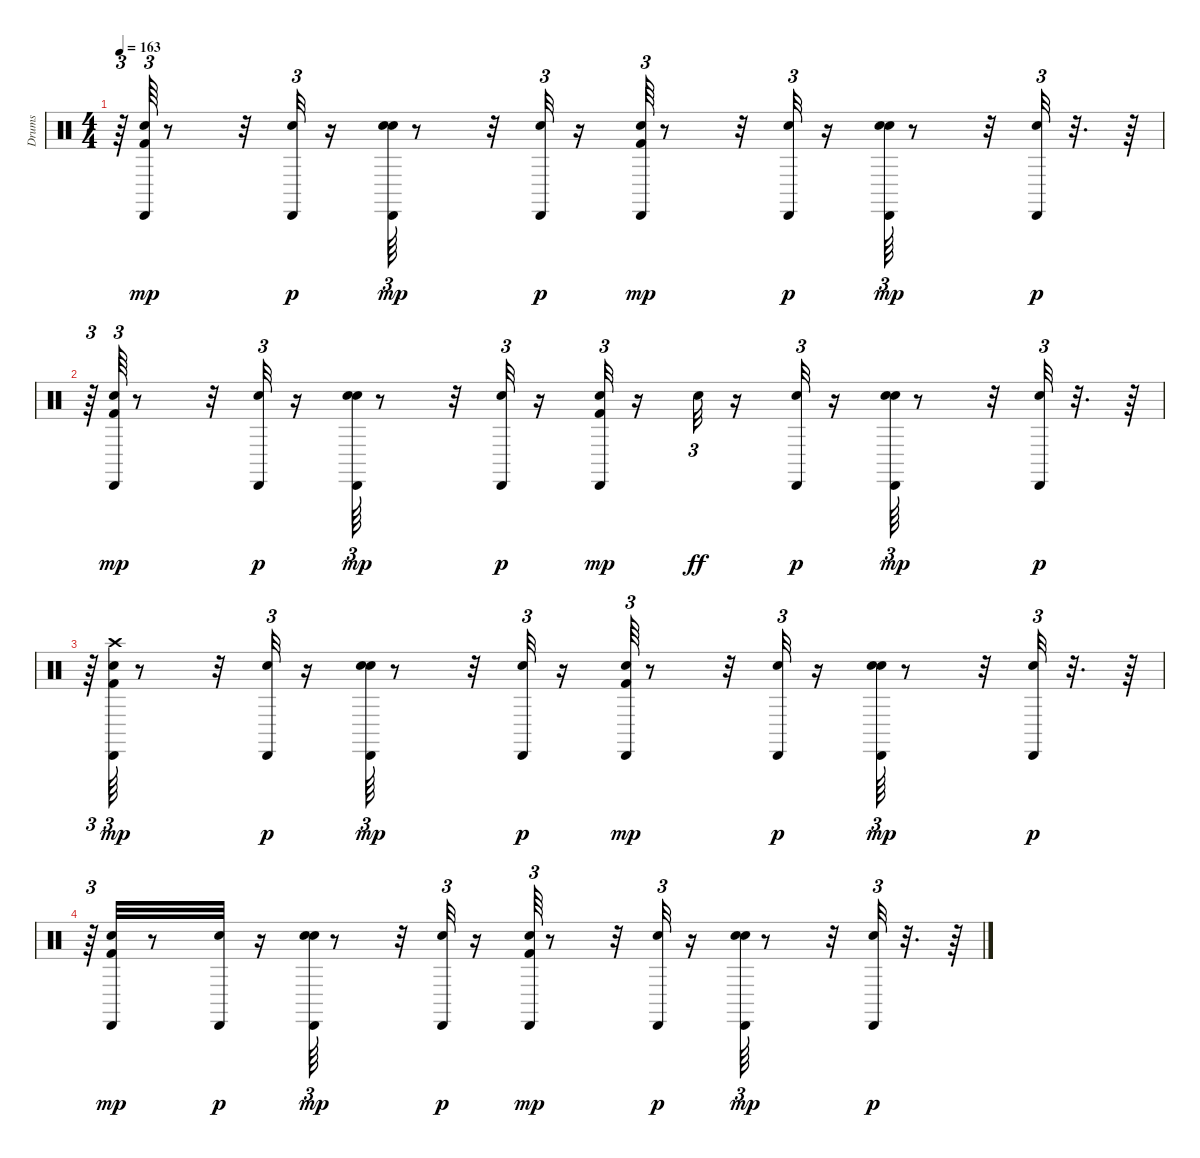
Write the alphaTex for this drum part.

\track ("Drums               " "Drums     ") {instrument percussion}
\staff {score}
\articulation defaults
\ts (4 4)
\tempo 163
\clef neutral
\ks c
r.64{tu (3 2) dy p} ("Kick (hit) 2" "Snare (hit) 2" "Cabasa (hit)").64{tu (3 2) dy mp} r.8 r.32 ("Snare (hit) 2" "Cabasa (hit)").32{tu (3 2) dy p} r.16 ("Snare (hit) 2" "Hand Clap (hit)" "Cabasa (hit)").64{tu (3 2) dy mp} r.8 r.32 ("Snare (hit) 2" "Cabasa (hit)").32{tu (3 2) dy p} r.16 ("Kick (hit) 2" "Snare (hit) 2" "Cabasa (hit)").64{tu (3 2) dy mp} r.8 r.32 ("Snare (hit) 2" "Cabasa (hit)").32{tu (3 2) dy p} r.16 ("Snare (hit) 2" "Hand Clap (hit)" "Cabasa (hit)").64{tu (3 2) dy mp} r.8 r.32 ("Snare (hit) 2" "Cabasa (hit)").32{tu (3 2) dy p} r.32{d} r.64 |
r.64{tu (3 2)} ("Kick (hit) 2" "Snare (hit) 2" "Cabasa (hit)").64{tu (3 2) dy mp} r.8 r.32 ("Snare (hit) 2" "Cabasa (hit)").32{tu (3 2) dy p} r.16 ("Snare (hit) 2" "Hand Clap (hit)" "Cabasa (hit)").64{tu (3 2) dy mp} r.8 r.32 ("Snare (hit) 2" "Cabasa (hit)").32{tu (3 2) dy p} r.16 ("Kick (hit) 2" "Snare (hit) 2" "Cabasa (hit)").32{tu (3 2) dy mp} r.16 "Snare (hit) 2".32{tu (3 2) dy ff} r.16 ("Snare (hit) 2" "Cabasa (hit)").32{tu (3 2) dy p} r.16 ("Snare (hit) 2" "Hand Clap (hit)" "Cabasa (hit)").64{tu (3 2) dy mp} r.8 r.32 ("Snare (hit) 2" "Cabasa (hit)").32{tu (3 2) dy p} r.32{d} r.64 |
r.64{tu (3 2)} ("Kick (hit) 2" "Snare (hit) 2" "Crash high (hit)" "Cabasa (hit)").64{tu (3 2) dy mp} r.8 r.32 ("Snare (hit) 2" "Cabasa (hit)").32{tu (3 2) dy p} r.16 ("Snare (hit) 2" "Hand Clap (hit)" "Cabasa (hit)").64{tu (3 2) dy mp} r.8 r.32 ("Snare (hit) 2" "Cabasa (hit)").32{tu (3 2) dy p} r.16 ("Kick (hit) 2" "Snare (hit) 2" "Cabasa (hit)").64{tu (3 2) dy mp} r.8 r.32 ("Snare (hit) 2" "Cabasa (hit)").32{tu (3 2) dy p} r.16 ("Snare (hit) 2" "Hand Clap (hit)" "Cabasa (hit)").64{tu (3 2) dy mp} r.8 r.32 ("Snare (hit) 2" "Cabasa (hit)").32{tu (3 2) dy p} r.32{d} r.64 |
r.64{tu (3 2)} ("Kick (hit) 2" "Snare (hit) 2" "Cabasa (hit)").32{dy mp} r.8 ("Snare (hit) 2" "Cabasa (hit)").32{dy p} r.16 ("Snare (hit) 2" "Hand Clap (hit)" "Cabasa (hit)").64{tu (3 2) dy mp} r.8 r.32 ("Snare (hit) 2" "Cabasa (hit)").32{tu (3 2) dy p} r.16 ("Kick (hit) 2" "Snare (hit) 2" "Cabasa (hit)").64{tu (3 2) dy mp} r.8 r.32 ("Snare (hit) 2" "Cabasa (hit)").32{tu (3 2) dy p} r.16 ("Snare (hit) 2" "Hand Clap (hit)" "Cabasa (hit)").64{tu (3 2) dy mp} r.8 r.32 ("Snare (hit) 2" "Cabasa (hit)").32{tu (3 2) dy p} r.32{d} r.64
